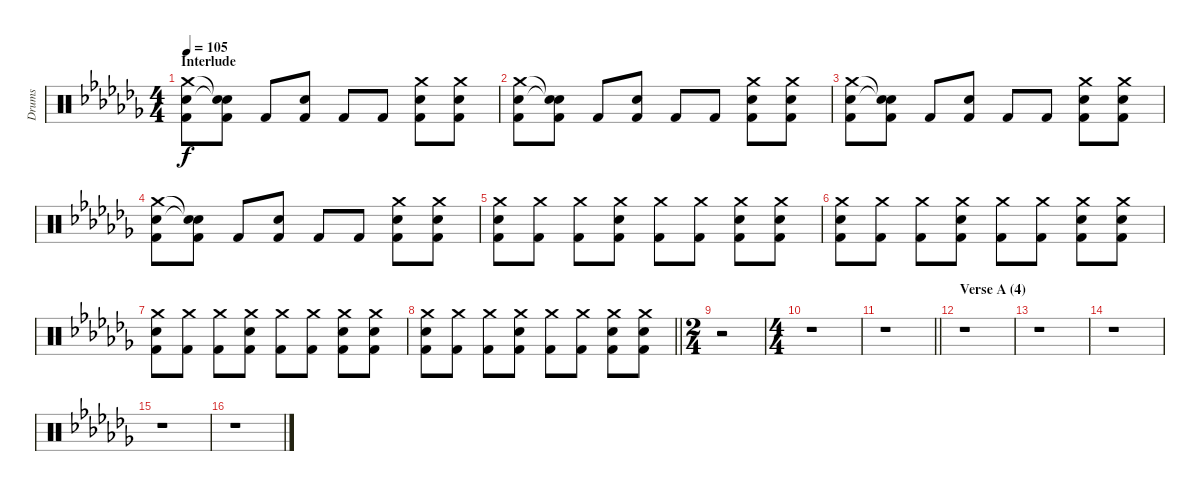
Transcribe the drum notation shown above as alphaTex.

\track ("Drums" "Drums") {instrument percussion}
\staff {score}
\articulation defaults
\ts (4 4)
\section ("" "Interlude")
\tempo 105
\clef neutral
\ks abminor
("Crash medium (hit)" "Electric Snare (hit)" "Kick (hit) 2").8{dy f} ("Snare (hit)"{t} "Snare (hit)"{t} "Kick (hit) 2").8 "Kick (hit) 2".8 ("Electric Snare (hit)" "Kick (hit) 2").8 "Kick (hit) 2".8 "Kick (hit) 2".8 ("Crash medium (hit)" "Electric Snare (hit)" "Kick (hit) 2").8 ("Crash medium (hit)" "Electric Snare (hit)" "Kick (hit) 2").8 |
("Crash medium (hit)" "Electric Snare (hit)" "Kick (hit) 2").8 ("Snare (hit)"{t} "Snare (hit)"{t} "Kick (hit) 2").8 "Kick (hit) 2".8 ("Electric Snare (hit)" "Kick (hit) 2").8 "Kick (hit) 2".8 "Kick (hit) 2".8 ("Crash medium (hit)" "Electric Snare (hit)" "Kick (hit) 2").8 ("Crash medium (hit)" "Electric Snare (hit)" "Kick (hit) 2").8 |
("Crash medium (hit)" "Electric Snare (hit)" "Kick (hit) 2").8 ("Snare (hit)"{t} "Snare (hit)"{t} "Kick (hit) 2").8 "Kick (hit) 2".8 ("Electric Snare (hit)" "Kick (hit) 2").8 "Kick (hit) 2".8 "Kick (hit) 2".8 ("Crash medium (hit)" "Electric Snare (hit)" "Kick (hit) 2").8 ("Crash medium (hit)" "Electric Snare (hit)" "Kick (hit) 2").8 |
("Crash medium (hit)" "Electric Snare (hit)" "Kick (hit) 2").8 ("Snare (hit)"{t} "Snare (hit)"{t} "Kick (hit) 2").8 "Kick (hit) 2".8 ("Electric Snare (hit)" "Kick (hit) 2").8 "Kick (hit) 2".8 "Kick (hit) 2".8 ("Crash medium (hit)" "Electric Snare (hit)" "Kick (hit) 2").8 ("Crash medium (hit)" "Electric Snare (hit)" "Kick (hit) 2").8 |
("Crash medium (hit)" "Electric Snare (hit)" "Kick (hit) 2").8 ("Crash medium (hit)" "Kick (hit) 2").8 ("Crash medium (hit)" "Kick (hit) 2").8 ("Crash medium (hit)" "Electric Snare (hit)" "Kick (hit) 2").8 ("Crash medium (hit)" "Kick (hit) 2").8 ("Crash medium (hit)" "Kick (hit) 2").8 ("Crash medium (hit)" "Electric Snare (hit)" "Kick (hit) 2").8 ("Crash medium (hit)" "Electric Snare (hit)" "Kick (hit) 2").8 |
("Crash medium (hit)" "Electric Snare (hit)" "Kick (hit) 2").8 ("Crash medium (hit)" "Kick (hit) 2").8 ("Crash medium (hit)" "Kick (hit) 2").8 ("Crash medium (hit)" "Electric Snare (hit)" "Kick (hit) 2").8 ("Crash medium (hit)" "Kick (hit) 2").8 ("Crash medium (hit)" "Kick (hit) 2").8 ("Crash medium (hit)" "Electric Snare (hit)" "Kick (hit) 2").8 ("Crash medium (hit)" "Electric Snare (hit)" "Kick (hit) 2").8 |
("Crash medium (hit)" "Electric Snare (hit)" "Kick (hit) 2").8 ("Crash medium (hit)" "Kick (hit) 2").8 ("Crash medium (hit)" "Kick (hit) 2").8 ("Crash medium (hit)" "Electric Snare (hit)" "Kick (hit) 2").8 ("Crash medium (hit)" "Kick (hit) 2").8 ("Crash medium (hit)" "Kick (hit) 2").8 ("Crash medium (hit)" "Electric Snare (hit)" "Kick (hit) 2").8 ("Crash medium (hit)" "Electric Snare (hit)" "Kick (hit) 2").8 |
\barLineRight lightlight
("Crash medium (hit)" "Electric Snare (hit)" "Kick (hit) 2").8 ("Crash medium (hit)" "Kick (hit) 2").8 ("Crash medium (hit)" "Kick (hit) 2").8 ("Crash medium (hit)" "Electric Snare (hit)" "Kick (hit) 2").8 ("Crash medium (hit)" "Kick (hit) 2").8 ("Crash medium (hit)" "Kick (hit) 2").8 ("Crash medium (hit)" "Electric Snare (hit)" "Kick (hit) 2").8 ("Crash medium (hit)" "Electric Snare (hit)" "Kick (hit) 2").8 |
\ts (2 4)
r.2 |
\ts (4 4)
r.1 |
\barLineRight lightlight
r.1 |
\section ("" "Verse A (4)")
r.1 |
r.1 |
r.1 |
r.1 |
r.1
